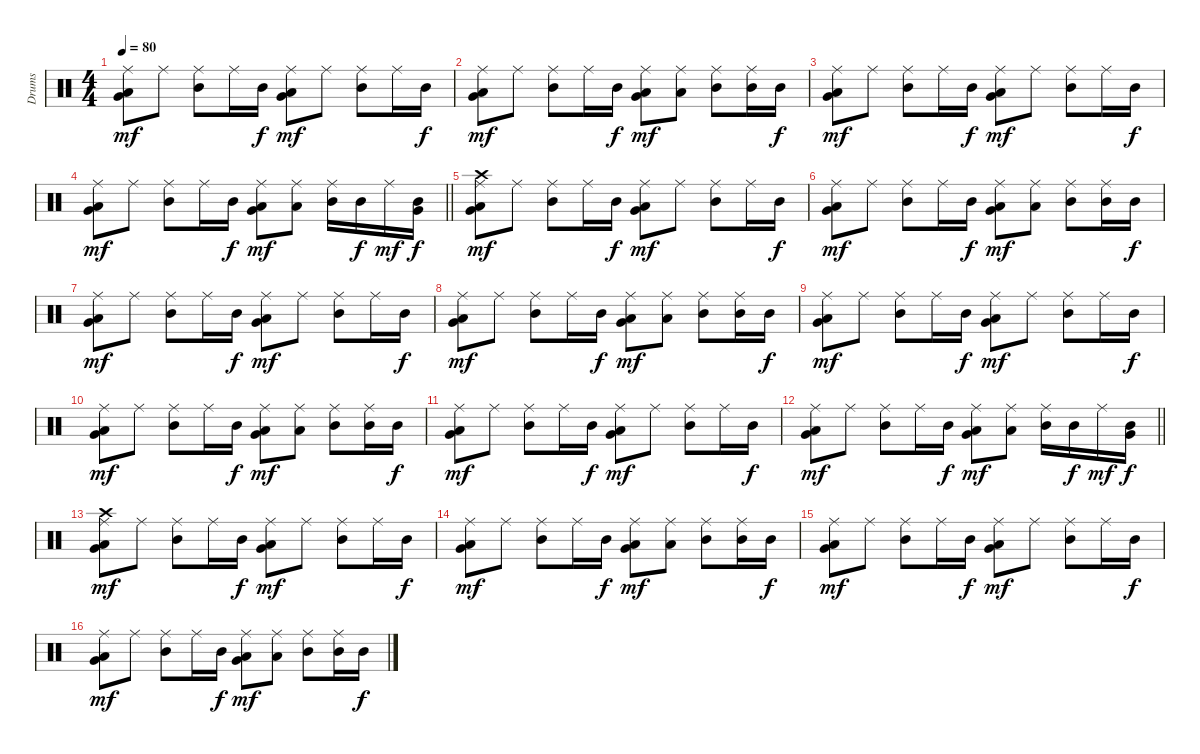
\track ("Drums" "Drums") {instrument percussion}
\staff {score}
\articulation defaults
\ts (4 4)
\tempo 80
\clef neutral
\ks c
("Ride (middle)" "Low Tom (hit)" "Very Low Tom (hit)").8{dy mf} "Ride (middle)".8 ("Ride (middle)" "Mid Tom (hit)").8 "Ride (middle)".16 "Mid Tom (hit)".16{dy f} ("Ride (middle)" "Low Tom (hit)" "Very Low Tom (hit)").8{dy mf} "Ride (middle)".8 ("Ride (middle)" "Mid Tom (hit)").8 "Ride (middle)".16 "Mid Tom (hit)".16{dy f} |
("Ride (middle)" "Low Tom (hit)" "Very Low Tom (hit)").8{dy mf} "Ride (middle)".8 ("Ride (middle)" "Mid Tom (hit)").8 "Ride (middle)".16 "Mid Tom (hit)".16{dy f} ("Ride (middle)" "Low Tom (hit)" "Very Low Tom (hit)").8{dy mf} ("Ride (middle)" "Low Tom (hit)").8 ("Ride (middle)" "Mid Tom (hit)").8 ("Ride (middle)" "Mid Tom (hit)").16 "Mid Tom (hit)".16{dy f} |
("Ride (middle)" "Low Tom (hit)" "Very Low Tom (hit)").8{dy mf} "Ride (middle)".8 ("Ride (middle)" "Mid Tom (hit)").8 "Ride (middle)".16 "Mid Tom (hit)".16{dy f} ("Ride (middle)" "Low Tom (hit)" "Very Low Tom (hit)").8{dy mf} "Ride (middle)".8 ("Ride (middle)" "Mid Tom (hit)").8 "Ride (middle)".16 "Mid Tom (hit)".16{dy f} |
\barLineRight lightlight
("Ride (middle)" "Low Tom (hit)" "Very Low Tom (hit)").8{dy mf} "Ride (middle)".8 ("Ride (middle)" "Mid Tom (hit)").8 "Ride (middle)".16 "Mid Tom (hit)".16{dy f} ("Ride (middle)" "Low Tom (hit)" "Very Low Tom (hit)").8{dy mf} ("Ride (middle)" "Low Tom (hit)").8 ("Ride (middle)" "Mid Tom (hit)").16 "Mid Tom (hit)".16{dy f} "Ride (middle)".16{dy mf} ("Mid Tom (hit)" "Very Low Tom (hit)").16{dy f} |
("Ride (middle)" "Crash high (hit)" "Low Tom (hit)" "Very Low Tom (hit)").8{dy mf} "Ride (middle)".8 ("Ride (middle)" "Mid Tom (hit)").8 "Ride (middle)".16 "Mid Tom (hit)".16{dy f} ("Ride (middle)" "Low Tom (hit)" "Very Low Tom (hit)").8{dy mf} "Ride (middle)".8 ("Ride (middle)" "Mid Tom (hit)").8 "Ride (middle)".16 "Mid Tom (hit)".16{dy f} |
("Ride (middle)" "Low Tom (hit)" "Very Low Tom (hit)").8{dy mf} "Ride (middle)".8 ("Ride (middle)" "Mid Tom (hit)").8 "Ride (middle)".16 "Mid Tom (hit)".16{dy f} ("Ride (middle)" "Low Tom (hit)" "Very Low Tom (hit)").8{dy mf} ("Ride (middle)" "Low Tom (hit)").8 ("Ride (middle)" "Mid Tom (hit)").8 ("Ride (middle)" "Mid Tom (hit)").16 "Mid Tom (hit)".16{dy f} |
("Ride (middle)" "Low Tom (hit)" "Very Low Tom (hit)").8{dy mf} "Ride (middle)".8 ("Ride (middle)" "Mid Tom (hit)").8 "Ride (middle)".16 "Mid Tom (hit)".16{dy f} ("Ride (middle)" "Low Tom (hit)" "Very Low Tom (hit)").8{dy mf} "Ride (middle)".8 ("Ride (middle)" "Mid Tom (hit)").8 "Ride (middle)".16 "Mid Tom (hit)".16{dy f} |
("Ride (middle)" "Low Tom (hit)" "Very Low Tom (hit)").8{dy mf} "Ride (middle)".8 ("Ride (middle)" "Mid Tom (hit)").8 "Ride (middle)".16 "Mid Tom (hit)".16{dy f} ("Ride (middle)" "Low Tom (hit)" "Very Low Tom (hit)").8{dy mf} ("Ride (middle)" "Low Tom (hit)").8 ("Ride (middle)" "Mid Tom (hit)").8 ("Ride (middle)" "Mid Tom (hit)").16 "Mid Tom (hit)".16{dy f} |
("Ride (middle)" "Low Tom (hit)" "Very Low Tom (hit)").8{dy mf} "Ride (middle)".8 ("Ride (middle)" "Mid Tom (hit)").8 "Ride (middle)".16 "Mid Tom (hit)".16{dy f} ("Ride (middle)" "Low Tom (hit)" "Very Low Tom (hit)").8{dy mf} "Ride (middle)".8 ("Ride (middle)" "Mid Tom (hit)").8 "Ride (middle)".16 "Mid Tom (hit)".16{dy f} |
("Ride (middle)" "Low Tom (hit)" "Very Low Tom (hit)").8{dy mf} "Ride (middle)".8 ("Ride (middle)" "Mid Tom (hit)").8 "Ride (middle)".16 "Mid Tom (hit)".16{dy f} ("Ride (middle)" "Low Tom (hit)" "Very Low Tom (hit)").8{dy mf} ("Ride (middle)" "Low Tom (hit)").8 ("Ride (middle)" "Mid Tom (hit)").8 ("Ride (middle)" "Mid Tom (hit)").16 "Mid Tom (hit)".16{dy f} |
("Ride (middle)" "Low Tom (hit)" "Very Low Tom (hit)").8{dy mf} "Ride (middle)".8 ("Ride (middle)" "Mid Tom (hit)").8 "Ride (middle)".16 "Mid Tom (hit)".16{dy f} ("Ride (middle)" "Low Tom (hit)" "Very Low Tom (hit)").8{dy mf} "Ride (middle)".8 ("Ride (middle)" "Mid Tom (hit)").8 "Ride (middle)".16 "Mid Tom (hit)".16{dy f} |
\barLineRight lightlight
("Ride (middle)" "Low Tom (hit)" "Very Low Tom (hit)").8{dy mf} "Ride (middle)".8 ("Ride (middle)" "Mid Tom (hit)").8 "Ride (middle)".16 "Mid Tom (hit)".16{dy f} ("Ride (middle)" "Low Tom (hit)" "Very Low Tom (hit)").8{dy mf} ("Ride (middle)" "Low Tom (hit)").8 ("Ride (middle)" "Mid Tom (hit)").16 "Mid Tom (hit)".16{dy f} "Ride (middle)".16{dy mf} ("Mid Tom (hit)" "Very Low Tom (hit)").16{dy f} |
("Ride (middle)" "Crash high (hit)" "Low Tom (hit)" "Very Low Tom (hit)").8{dy mf} "Ride (middle)".8 ("Ride (middle)" "Mid Tom (hit)").8 "Ride (middle)".16 "Mid Tom (hit)".16{dy f} ("Ride (middle)" "Low Tom (hit)" "Very Low Tom (hit)").8{dy mf} "Ride (middle)".8 ("Ride (middle)" "Mid Tom (hit)").8 "Ride (middle)".16 "Mid Tom (hit)".16{dy f} |
("Ride (middle)" "Low Tom (hit)" "Very Low Tom (hit)").8{dy mf} "Ride (middle)".8 ("Ride (middle)" "Mid Tom (hit)").8 "Ride (middle)".16 "Mid Tom (hit)".16{dy f} ("Ride (middle)" "Low Tom (hit)" "Very Low Tom (hit)").8{dy mf} ("Ride (middle)" "Low Tom (hit)").8 ("Ride (middle)" "Mid Tom (hit)").8 ("Ride (middle)" "Mid Tom (hit)").16 "Mid Tom (hit)".16{dy f} |
("Ride (middle)" "Low Tom (hit)" "Very Low Tom (hit)").8{dy mf} "Ride (middle)".8 ("Ride (middle)" "Mid Tom (hit)").8 "Ride (middle)".16 "Mid Tom (hit)".16{dy f} ("Ride (middle)" "Low Tom (hit)" "Very Low Tom (hit)").8{dy mf} "Ride (middle)".8 ("Ride (middle)" "Mid Tom (hit)").8 "Ride (middle)".16 "Mid Tom (hit)".16{dy f} |
("Ride (middle)" "Low Tom (hit)" "Very Low Tom (hit)").8{dy mf} "Ride (middle)".8 ("Ride (middle)" "Mid Tom (hit)").8 "Ride (middle)".16 "Mid Tom (hit)".16{dy f} ("Ride (middle)" "Low Tom (hit)" "Very Low Tom (hit)").8{dy mf} ("Ride (middle)" "Low Tom (hit)").8 ("Ride (middle)" "Mid Tom (hit)").8 ("Ride (middle)" "Mid Tom (hit)").16 "Mid Tom (hit)".16{dy f}
